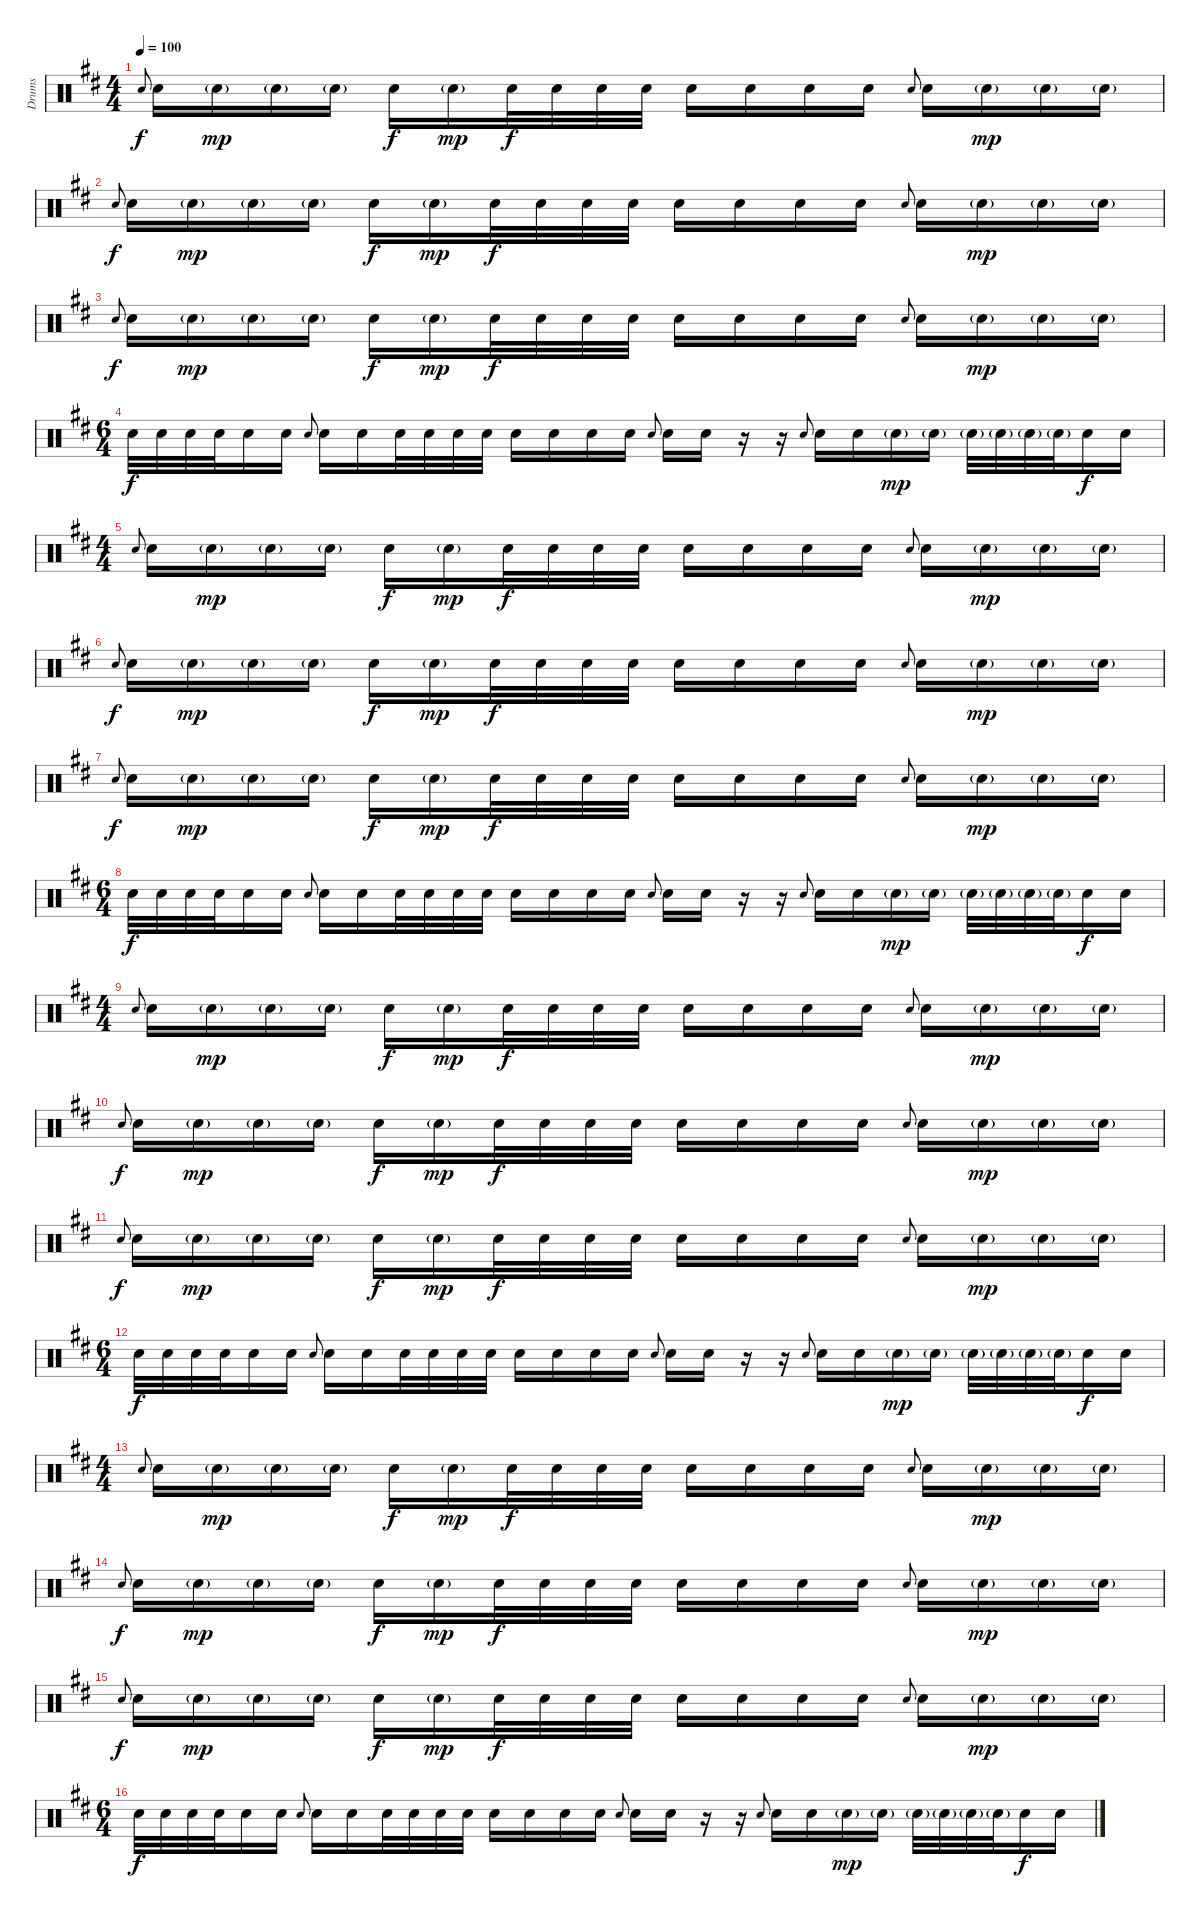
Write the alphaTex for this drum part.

\track ("Drums" "Drums") {instrument percussion}
\staff {score}
\articulation defaults
\ts (4 4)
\tempo 100
\clef neutral
\ks d "Snare (hit) 2".8{gr onbeat dy f} "Snare (hit) 2".16 "Snare (hit) 2"{g}.16{dy mp} "Snare (hit) 2"{g}.16 "Snare (hit) 2"{g}.16 "Snare (hit) 2".16{dy f} "Snare (hit) 2"{g}.16{dy mp} "Snare (hit) 2".32{dy f} "Snare (hit) 2".32 "Snare (hit) 2".32 "Snare (hit) 2".32 "Snare (hit) 2".16 "Snare (hit) 2".16 "Snare (hit) 2".16 "Snare (hit) 2".16 "Snare (hit) 2".8{gr onbeat} "Snare (hit) 2".16 "Snare (hit) 2"{g}.16{dy mp} "Snare (hit) 2"{g}.16 "Snare (hit) 2"{g}.16
|
"Snare (hit) 2".8{gr onbeat dy f} "Snare (hit) 2".16 "Snare (hit) 2"{g}.16{dy mp} "Snare (hit) 2"{g}.16 "Snare (hit) 2"{g}.16 "Snare (hit) 2".16{dy f} "Snare (hit) 2"{g}.16{dy mp} "Snare (hit) 2".32{dy f} "Snare (hit) 2".32 "Snare (hit) 2".32 "Snare (hit) 2".32 "Snare (hit) 2".16 "Snare (hit) 2".16 "Snare (hit) 2".16 "Snare (hit) 2".16 "Snare (hit) 2".8{gr onbeat} "Snare (hit) 2".16 "Snare (hit) 2"{g}.16{dy mp} "Snare (hit) 2"{g}.16 "Snare (hit) 2"{g}.16 |
"Snare (hit) 2".8{gr onbeat dy f} "Snare (hit) 2".16 "Snare (hit) 2"{g}.16{dy mp} "Snare (hit) 2"{g}.16 "Snare (hit) 2"{g}.16 "Snare (hit) 2".16{dy f} "Snare (hit) 2"{g}.16{dy mp} "Snare (hit) 2".32{dy f} "Snare (hit) 2".32 "Snare (hit) 2".32 "Snare (hit) 2".32 "Snare (hit) 2".16 "Snare (hit) 2".16 "Snare (hit) 2".16 "Snare (hit) 2".16 "Snare (hit) 2".8{gr onbeat} "Snare (hit) 2".16 "Snare (hit) 2"{g}.16{dy mp} "Snare (hit) 2"{g}.16 "Snare (hit) 2"{g}.16 |
\ts (6 4)
"Snare (hit) 2".32{dy f} "Snare (hit) 2".32 "Snare (hit) 2".32 "Snare (hit) 2".32 "Snare (hit) 2".16 "Snare (hit) 2".16 "Snare (hit) 2".8{gr onbeat} "Snare (hit) 2".16 "Snare (hit) 2".16 "Snare (hit) 2".32 "Snare (hit) 2".32 "Snare (hit) 2".32 "Snare (hit) 2".32 "Snare (hit) 2".16 "Snare (hit) 2".16 "Snare (hit) 2".16 "Snare (hit) 2".16 "Snare (hit) 2".8{gr onbeat} "Snare (hit) 2".16 "Snare (hit) 2".16 r.16 r.16 "Snare (hit) 2".8{gr onbeat} "Snare (hit) 2".16 "Snare (hit) 2".16 "Snare (hit) 2"{g}.16{dy mp} "Snare (hit) 2"{g}.16 "Snare (hit) 2"{g}.32 "Snare (hit) 2"{g}.32 "Snare (hit) 2"{g}.32 "Snare (hit) 2"{g}.32 "Snare (hit) 2".16{dy f} "Snare (hit) 2".16 |
\ts (4 4)
"Snare (hit) 2".8{gr onbeat} "Snare (hit) 2".16 "Snare (hit) 2"{g}.16{dy mp} "Snare (hit) 2"{g}.16 "Snare (hit) 2"{g}.16 "Snare (hit) 2".16{dy f} "Snare (hit) 2"{g}.16{dy mp} "Snare (hit) 2".32{dy f} "Snare (hit) 2".32 "Snare (hit) 2".32 "Snare (hit) 2".32 "Snare (hit) 2".16 "Snare (hit) 2".16 "Snare (hit) 2".16 "Snare (hit) 2".16 "Snare (hit) 2".8{gr onbeat} "Snare (hit) 2".16 "Snare (hit) 2"{g}.16{dy mp} "Snare (hit) 2"{g}.16 "Snare (hit) 2"{g}.16 |
"Snare (hit) 2".8{gr onbeat dy f} "Snare (hit) 2".16 "Snare (hit) 2"{g}.16{dy mp} "Snare (hit) 2"{g}.16 "Snare (hit) 2"{g}.16 "Snare (hit) 2".16{dy f} "Snare (hit) 2"{g}.16{dy mp} "Snare (hit) 2".32{dy f} "Snare (hit) 2".32 "Snare (hit) 2".32 "Snare (hit) 2".32 "Snare (hit) 2".16 "Snare (hit) 2".16 "Snare (hit) 2".16 "Snare (hit) 2".16 "Snare (hit) 2".8{gr onbeat} "Snare (hit) 2".16 "Snare (hit) 2"{g}.16{dy mp} "Snare (hit) 2"{g}.16 "Snare (hit) 2"{g}.16 |
"Snare (hit) 2".8{gr onbeat dy f} "Snare (hit) 2".16 "Snare (hit) 2"{g}.16{dy mp} "Snare (hit) 2"{g}.16 "Snare (hit) 2"{g}.16 "Snare (hit) 2".16{dy f} "Snare (hit) 2"{g}.16{dy mp} "Snare (hit) 2".32{dy f} "Snare (hit) 2".32 "Snare (hit) 2".32 "Snare (hit) 2".32 "Snare (hit) 2".16 "Snare (hit) 2".16 "Snare (hit) 2".16 "Snare (hit) 2".16 "Snare (hit) 2".8{gr onbeat} "Snare (hit) 2".16 "Snare (hit) 2"{g}.16{dy mp} "Snare (hit) 2"{g}.16 "Snare (hit) 2"{g}.16 |
\ts (6 4)
"Snare (hit) 2".32{dy f} "Snare (hit) 2".32 "Snare (hit) 2".32 "Snare (hit) 2".32 "Snare (hit) 2".16 "Snare (hit) 2".16 "Snare (hit) 2".8{gr onbeat} "Snare (hit) 2".16 "Snare (hit) 2".16 "Snare (hit) 2".32 "Snare (hit) 2".32 "Snare (hit) 2".32 "Snare (hit) 2".32 "Snare (hit) 2".16 "Snare (hit) 2".16 "Snare (hit) 2".16 "Snare (hit) 2".16 "Snare (hit) 2".8{gr onbeat} "Snare (hit) 2".16 "Snare (hit) 2".16 r.16 r.16 "Snare (hit) 2".8{gr onbeat} "Snare (hit) 2".16 "Snare (hit) 2".16 "Snare (hit) 2"{g}.16{dy mp} "Snare (hit) 2"{g}.16 "Snare (hit) 2"{g}.32 "Snare (hit) 2"{g}.32 "Snare (hit) 2"{g}.32 "Snare (hit) 2"{g}.32 "Snare (hit) 2".16{dy f} "Snare (hit) 2".16 |
\ts (4 4)
"Snare (hit) 2".8{gr onbeat} "Snare (hit) 2".16 "Snare (hit) 2"{g}.16{dy mp} "Snare (hit) 2"{g}.16 "Snare (hit) 2"{g}.16 "Snare (hit) 2".16{dy f} "Snare (hit) 2"{g}.16{dy mp} "Snare (hit) 2".32{dy f} "Snare (hit) 2".32 "Snare (hit) 2".32 "Snare (hit) 2".32 "Snare (hit) 2".16 "Snare (hit) 2".16 "Snare (hit) 2".16 "Snare (hit) 2".16 "Snare (hit) 2".8{gr onbeat} "Snare (hit) 2".16 "Snare (hit) 2"{g}.16{dy mp} "Snare (hit) 2"{g}.16 "Snare (hit) 2"{g}.16 |
"Snare (hit) 2".8{gr onbeat dy f} "Snare (hit) 2".16 "Snare (hit) 2"{g}.16{dy mp} "Snare (hit) 2"{g}.16 "Snare (hit) 2"{g}.16 "Snare (hit) 2".16{dy f} "Snare (hit) 2"{g}.16{dy mp} "Snare (hit) 2".32{dy f} "Snare (hit) 2".32 "Snare (hit) 2".32 "Snare (hit) 2".32 "Snare (hit) 2".16 "Snare (hit) 2".16 "Snare (hit) 2".16 "Snare (hit) 2".16 "Snare (hit) 2".8{gr onbeat} "Snare (hit) 2".16 "Snare (hit) 2"{g}.16{dy mp} "Snare (hit) 2"{g}.16 "Snare (hit) 2"{g}.16 |
"Snare (hit) 2".8{gr onbeat dy f} "Snare (hit) 2".16 "Snare (hit) 2"{g}.16{dy mp} "Snare (hit) 2"{g}.16 "Snare (hit) 2"{g}.16 "Snare (hit) 2".16{dy f} "Snare (hit) 2"{g}.16{dy mp} "Snare (hit) 2".32{dy f} "Snare (hit) 2".32 "Snare (hit) 2".32 "Snare (hit) 2".32 "Snare (hit) 2".16 "Snare (hit) 2".16 "Snare (hit) 2".16 "Snare (hit) 2".16 "Snare (hit) 2".8{gr onbeat} "Snare (hit) 2".16 "Snare (hit) 2"{g}.16{dy mp} "Snare (hit) 2"{g}.16 "Snare (hit) 2"{g}.16 |
\ts (6 4)
"Snare (hit) 2".32{dy f} "Snare (hit) 2".32 "Snare (hit) 2".32 "Snare (hit) 2".32 "Snare (hit) 2".16 "Snare (hit) 2".16 "Snare (hit) 2".8{gr onbeat} "Snare (hit) 2".16 "Snare (hit) 2".16 "Snare (hit) 2".32 "Snare (hit) 2".32 "Snare (hit) 2".32 "Snare (hit) 2".32 "Snare (hit) 2".16 "Snare (hit) 2".16 "Snare (hit) 2".16 "Snare (hit) 2".16 "Snare (hit) 2".8{gr onbeat} "Snare (hit) 2".16 "Snare (hit) 2".16 r.16 r.16 "Snare (hit) 2".8{gr onbeat} "Snare (hit) 2".16 "Snare (hit) 2".16 "Snare (hit) 2"{g}.16{dy mp} "Snare (hit) 2"{g}.16 "Snare (hit) 2"{g}.32 "Snare (hit) 2"{g}.32 "Snare (hit) 2"{g}.32 "Snare (hit) 2"{g}.32 "Snare (hit) 2".16{dy f} "Snare (hit) 2".16 |
\ts (4 4)
"Snare (hit) 2".8{gr onbeat} "Snare (hit) 2".16 "Snare (hit) 2"{g}.16{dy mp} "Snare (hit) 2"{g}.16 "Snare (hit) 2"{g}.16 "Snare (hit) 2".16{dy f} "Snare (hit) 2"{g}.16{dy mp} "Snare (hit) 2".32{dy f} "Snare (hit) 2".32 "Snare (hit) 2".32 "Snare (hit) 2".32 "Snare (hit) 2".16 "Snare (hit) 2".16 "Snare (hit) 2".16 "Snare (hit) 2".16 "Snare (hit) 2".8{gr onbeat} "Snare (hit) 2".16 "Snare (hit) 2"{g}.16{dy mp} "Snare (hit) 2"{g}.16 "Snare (hit) 2"{g}.16 |
"Snare (hit) 2".8{gr onbeat dy f} "Snare (hit) 2".16 "Snare (hit) 2"{g}.16{dy mp} "Snare (hit) 2"{g}.16 "Snare (hit) 2"{g}.16 "Snare (hit) 2".16{dy f} "Snare (hit) 2"{g}.16{dy mp} "Snare (hit) 2".32{dy f} "Snare (hit) 2".32 "Snare (hit) 2".32 "Snare (hit) 2".32 "Snare (hit) 2".16 "Snare (hit) 2".16 "Snare (hit) 2".16 "Snare (hit) 2".16 "Snare (hit) 2".8{gr onbeat} "Snare (hit) 2".16 "Snare (hit) 2"{g}.16{dy mp} "Snare (hit) 2"{g}.16 "Snare (hit) 2"{g}.16 |
"Snare (hit) 2".8{gr onbeat dy f} "Snare (hit) 2".16 "Snare (hit) 2"{g}.16{dy mp} "Snare (hit) 2"{g}.16 "Snare (hit) 2"{g}.16 "Snare (hit) 2".16{dy f} "Snare (hit) 2"{g}.16{dy mp} "Snare (hit) 2".32{dy f} "Snare (hit) 2".32 "Snare (hit) 2".32 "Snare (hit) 2".32 "Snare (hit) 2".16 "Snare (hit) 2".16 "Snare (hit) 2".16 "Snare (hit) 2".16 "Snare (hit) 2".8{gr onbeat} "Snare (hit) 2".16 "Snare (hit) 2"{g}.16{dy mp} "Snare (hit) 2"{g}.16 "Snare (hit) 2"{g}.16 |
\ts (6 4)
"Snare (hit) 2".32{dy f} "Snare (hit) 2".32 "Snare (hit) 2".32 "Snare (hit) 2".32 "Snare (hit) 2".16 "Snare (hit) 2".16 "Snare (hit) 2".8{gr onbeat} "Snare (hit) 2".16 "Snare (hit) 2".16 "Snare (hit) 2".32 "Snare (hit) 2".32 "Snare (hit) 2".32 "Snare (hit) 2".32 "Snare (hit) 2".16 "Snare (hit) 2".16 "Snare (hit) 2".16 "Snare (hit) 2".16 "Snare (hit) 2".8{gr onbeat} "Snare (hit) 2".16 "Snare (hit) 2".16 r.16 r.16 "Snare (hit) 2".8{gr onbeat} "Snare (hit) 2".16 "Snare (hit) 2".16 "Snare (hit) 2"{g}.16{dy mp} "Snare (hit) 2"{g}.16 "Snare (hit) 2"{g}.32 "Snare (hit) 2"{g}.32 "Snare (hit) 2"{g}.32 "Snare (hit) 2"{g}.32 "Snare (hit) 2".16{dy f} "Snare (hit) 2".16
